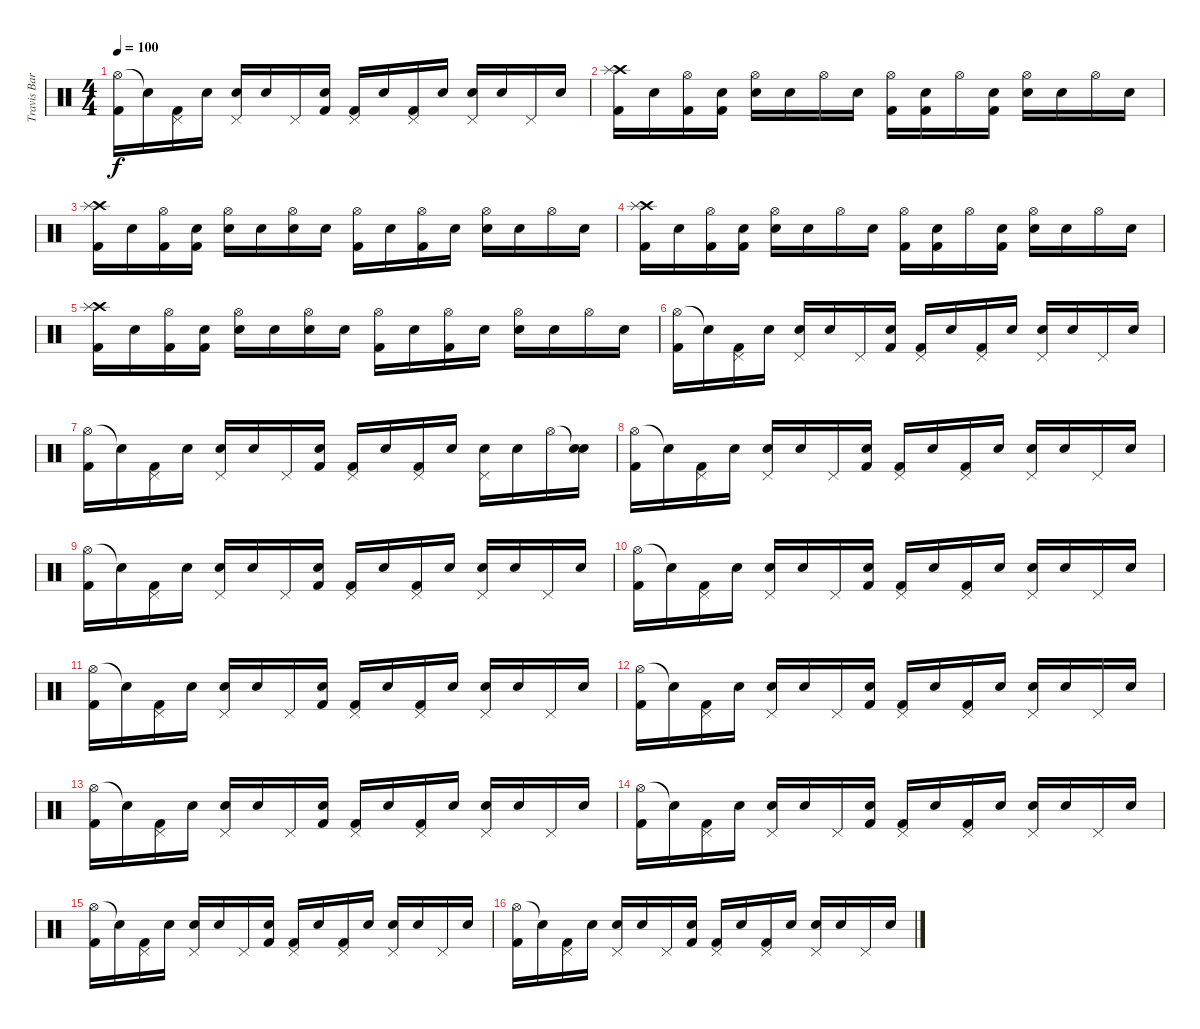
\track ("Travis Barker - Batterie" "Travis Bar") {instrument percussion}
\staff {score}
\articulation defaults
\ts (4 4)
\tempo 100
\clef neutral
\ks c
("Hi-Hat (open)" "Kick (hit) 2").16{dy f} "Snare (hit)"{t}.16 ("Pedal Hi-Hat (hit)" "Kick (hit) 2").16 "Snare (hit)"{x}.16 ("Pedal Hi-Hat (hit)" "Electric Snare (hit)").16 "Snare (hit)"{x}.16 "Pedal Hi-Hat (hit)".16 ("Snare (hit)"{x} "Kick (hit) 2").16 ("Pedal Hi-Hat (hit)" "Kick (hit) 2").16 "Snare (hit)"{x}.16 ("Pedal Hi-Hat (hit)" "Kick (hit) 2").16 "Snare (hit)"{x}.16 ("Pedal Hi-Hat (hit)" "Electric Snare (hit)").16 "Snare (hit)"{x}.16 "Pedal Hi-Hat (hit)".16 "Snare (hit)"{x}.16 |
("Crash high (hit)" "Splash (hit)" "Kick (hit) 2").16 "Snare (hit)"{x}.16 ("Hi-Hat (open)" "Kick (hit) 2").16 ("Snare (hit)"{x} "Kick (hit) 2").16 ("Hi-Hat (open)" "Electric Snare (hit)").16 "Snare (hit)"{x}.16 "Hi-Hat (open)".16 "Snare (hit)"{x}.16 ("Hi-Hat (open)" "Kick (hit) 2").16 ("Snare (hit)"{x} "Kick (hit) 2").16 "Hi-Hat (open)".16 ("Snare (hit)"{x} "Kick (hit) 2").16 ("Hi-Hat (open)" "Electric Snare (hit)").16 "Snare (hit)"{x}.16 "Hi-Hat (open)".16 "Snare (hit)"{x}.16 |
("Crash high (hit)" "Splash (hit)" "Kick (hit) 2").16 "Snare (hit)"{x}.16 ("Hi-Hat (open)" "Kick (hit) 2").16 ("Snare (hit)"{x} "Kick (hit) 2").16 ("Hi-Hat (open)" "Electric Snare (hit)").16 "Snare (hit)"{x}.16 ("Hi-Hat (open)" "Electric Snare (hit)").16 "Snare (hit)"{x}.16 ("Hi-Hat (open)" "Kick (hit) 2").16 "Snare (hit)"{x}.16 ("Hi-Hat (open)" "Kick (hit) 2").16 "Snare (hit)"{x}.16 ("Hi-Hat (open)" "Electric Snare (hit)").16 "Snare (hit)"{x}.16 "Hi-Hat (open)".16 "Snare (hit)"{x}.16 |
("Crash high (hit)" "Splash (hit)" "Kick (hit) 2").16 "Snare (hit)"{x}.16 ("Hi-Hat (open)" "Kick (hit) 2").16 ("Snare (hit)"{x} "Kick (hit) 2").16 ("Hi-Hat (open)" "Electric Snare (hit)").16 "Snare (hit)"{x}.16 "Hi-Hat (open)".16 "Snare (hit)"{x}.16 ("Hi-Hat (open)" "Kick (hit) 2").16 ("Snare (hit)"{x} "Kick (hit) 2").16 "Hi-Hat (open)".16 ("Snare (hit)"{x} "Kick (hit) 2").16 ("Hi-Hat (open)" "Electric Snare (hit)").16 "Snare (hit)"{x}.16 "Hi-Hat (open)".16 "Snare (hit)"{x}.16 |
("Crash high (hit)" "Splash (hit)" "Kick (hit) 2").16 "Snare (hit)"{x}.16 ("Hi-Hat (open)" "Kick (hit) 2").16 ("Snare (hit)"{x} "Kick (hit) 2").16 ("Hi-Hat (open)" "Electric Snare (hit)").16 "Snare (hit)"{x}.16 ("Hi-Hat (open)" "Electric Snare (hit)").16 "Snare (hit)"{x}.16 ("Hi-Hat (open)" "Kick (hit) 2").16 "Snare (hit)"{x}.16 ("Hi-Hat (open)" "Kick (hit) 2").16 "Snare (hit)"{x}.16 ("Hi-Hat (open)" "Electric Snare (hit)").16 "Snare (hit)"{x}.16 "Hi-Hat (open)".16 "Snare (hit)"{x}.16 |
("Hi-Hat (open)" "Kick (hit) 2").16 "Snare (hit)"{t}.16 ("Pedal Hi-Hat (hit)" "Kick (hit) 2").16 "Snare (hit)"{x}.16 ("Pedal Hi-Hat (hit)" "Electric Snare (hit)").16 "Snare (hit)"{x}.16 "Pedal Hi-Hat (hit)".16 ("Snare (hit)"{x} "Kick (hit) 2").16 ("Pedal Hi-Hat (hit)" "Kick (hit) 2").16 "Snare (hit)"{x}.16 ("Pedal Hi-Hat (hit)" "Kick (hit) 2").16 "Snare (hit)"{x}.16 ("Pedal Hi-Hat (hit)" "Electric Snare (hit)").16 "Snare (hit)"{x}.16 "Pedal Hi-Hat (hit)".16 "Snare (hit)"{x}.16 |
("Hi-Hat (open)" "Kick (hit) 2").16 "Snare (hit)"{t}.16 ("Pedal Hi-Hat (hit)" "Kick (hit) 2").16 "Snare (hit)"{x}.16 ("Pedal Hi-Hat (hit)" "Electric Snare (hit)").16 "Snare (hit)"{x}.16 "Pedal Hi-Hat (hit)".16 ("Snare (hit)"{x} "Kick (hit) 2").16 ("Pedal Hi-Hat (hit)" "Kick (hit) 2").16 "Snare (hit)"{x}.16 ("Pedal Hi-Hat (hit)" "Kick (hit) 2").16 "Snare (hit)"{x}.16 ("Pedal Hi-Hat (hit)" "Electric Snare (hit)").16 "Snare (hit)"{x}.16 "Hi-Hat (open)".16 ("Snare (hit)"{t} "Electric Snare (hit)").16 |
("Hi-Hat (open)" "Kick (hit) 2").16 "Snare (hit)"{t}.16 ("Pedal Hi-Hat (hit)" "Kick (hit) 2").16 "Snare (hit)"{x}.16 ("Pedal Hi-Hat (hit)" "Electric Snare (hit)").16 "Snare (hit)"{x}.16 "Pedal Hi-Hat (hit)".16 ("Snare (hit)"{x} "Kick (hit) 2").16 ("Pedal Hi-Hat (hit)" "Kick (hit) 2").16 "Snare (hit)"{x}.16 ("Pedal Hi-Hat (hit)" "Kick (hit) 2").16 "Snare (hit)"{x}.16 ("Pedal Hi-Hat (hit)" "Electric Snare (hit)").16 "Snare (hit)"{x}.16 "Pedal Hi-Hat (hit)".16 "Snare (hit)"{x}.16 |
("Hi-Hat (open)" "Kick (hit) 2").16 "Snare (hit)"{t}.16 ("Pedal Hi-Hat (hit)" "Kick (hit) 2").16 "Snare (hit)"{x}.16 ("Pedal Hi-Hat (hit)" "Electric Snare (hit)").16 "Snare (hit)"{x}.16 "Pedal Hi-Hat (hit)".16 ("Snare (hit)"{x} "Kick (hit) 2").16 ("Pedal Hi-Hat (hit)" "Kick (hit) 2").16 "Snare (hit)"{x}.16 ("Pedal Hi-Hat (hit)" "Kick (hit) 2").16 "Snare (hit)"{x}.16 ("Pedal Hi-Hat (hit)" "Electric Snare (hit)").16 "Snare (hit)"{x}.16 "Pedal Hi-Hat (hit)".16 "Snare (hit)"{x}.16 |
("Hi-Hat (open)" "Kick (hit) 2").16 "Snare (hit)"{t}.16 ("Pedal Hi-Hat (hit)" "Kick (hit) 2").16 "Snare (hit)"{x}.16 ("Pedal Hi-Hat (hit)" "Electric Snare (hit)").16 "Snare (hit)"{x}.16 "Pedal Hi-Hat (hit)".16 ("Snare (hit)"{x} "Kick (hit) 2").16 ("Pedal Hi-Hat (hit)" "Kick (hit) 2").16 "Snare (hit)"{x}.16 ("Pedal Hi-Hat (hit)" "Kick (hit) 2").16 "Snare (hit)"{x}.16 ("Pedal Hi-Hat (hit)" "Electric Snare (hit)").16 "Snare (hit)"{x}.16 "Pedal Hi-Hat (hit)".16 "Snare (hit)"{x}.16 |
("Hi-Hat (open)" "Kick (hit) 2").16 "Snare (hit)"{t}.16 ("Pedal Hi-Hat (hit)" "Kick (hit) 2").16 "Snare (hit)"{x}.16 ("Pedal Hi-Hat (hit)" "Electric Snare (hit)").16 "Snare (hit)"{x}.16 "Pedal Hi-Hat (hit)".16 ("Snare (hit)"{x} "Kick (hit) 2").16 ("Pedal Hi-Hat (hit)" "Kick (hit) 2").16 "Snare (hit)"{x}.16 ("Pedal Hi-Hat (hit)" "Kick (hit) 2").16 "Snare (hit)"{x}.16 ("Pedal Hi-Hat (hit)" "Electric Snare (hit)").16 "Snare (hit)"{x}.16 "Pedal Hi-Hat (hit)".16 "Snare (hit)"{x}.16 |
("Hi-Hat (open)" "Kick (hit) 2").16 "Snare (hit)"{t}.16 ("Pedal Hi-Hat (hit)" "Kick (hit) 2").16 "Snare (hit)"{x}.16 ("Pedal Hi-Hat (hit)" "Electric Snare (hit)").16 "Snare (hit)"{x}.16 "Pedal Hi-Hat (hit)".16 ("Snare (hit)"{x} "Kick (hit) 2").16 ("Pedal Hi-Hat (hit)" "Kick (hit) 2").16 "Snare (hit)"{x}.16 ("Pedal Hi-Hat (hit)" "Kick (hit) 2").16 "Snare (hit)"{x}.16 ("Pedal Hi-Hat (hit)" "Electric Snare (hit)").16 "Snare (hit)"{x}.16 "Pedal Hi-Hat (hit)".16 "Snare (hit)"{x}.16 |
("Hi-Hat (open)" "Kick (hit) 2").16 "Snare (hit)"{t}.16 ("Pedal Hi-Hat (hit)" "Kick (hit) 2").16 "Snare (hit)"{x}.16 ("Pedal Hi-Hat (hit)" "Electric Snare (hit)").16 "Snare (hit)"{x}.16 "Pedal Hi-Hat (hit)".16 ("Snare (hit)"{x} "Kick (hit) 2").16 ("Pedal Hi-Hat (hit)" "Kick (hit) 2").16 "Snare (hit)"{x}.16 ("Pedal Hi-Hat (hit)" "Kick (hit) 2").16 "Snare (hit)"{x}.16 ("Pedal Hi-Hat (hit)" "Electric Snare (hit)").16 "Snare (hit)"{x}.16 "Pedal Hi-Hat (hit)".16 "Snare (hit)"{x}.16 |
("Hi-Hat (open)" "Kick (hit) 2").16 "Snare (hit)"{t}.16 ("Pedal Hi-Hat (hit)" "Kick (hit) 2").16 "Snare (hit)"{x}.16 ("Pedal Hi-Hat (hit)" "Electric Snare (hit)").16 "Snare (hit)"{x}.16 "Pedal Hi-Hat (hit)".16 ("Snare (hit)"{x} "Kick (hit) 2").16 ("Pedal Hi-Hat (hit)" "Kick (hit) 2").16 "Snare (hit)"{x}.16 ("Pedal Hi-Hat (hit)" "Kick (hit) 2").16 "Snare (hit)"{x}.16 ("Pedal Hi-Hat (hit)" "Electric Snare (hit)").16 "Snare (hit)"{x}.16 "Pedal Hi-Hat (hit)".16 "Snare (hit)"{x}.16 |
("Hi-Hat (open)" "Kick (hit) 2").16 "Snare (hit)"{t}.16 ("Pedal Hi-Hat (hit)" "Kick (hit) 2").16 "Snare (hit)"{x}.16 ("Pedal Hi-Hat (hit)" "Electric Snare (hit)").16 "Snare (hit)"{x}.16 "Pedal Hi-Hat (hit)".16 ("Snare (hit)"{x} "Kick (hit) 2").16 ("Pedal Hi-Hat (hit)" "Kick (hit) 2").16 "Snare (hit)"{x}.16 ("Pedal Hi-Hat (hit)" "Kick (hit) 2").16 "Snare (hit)"{x}.16 ("Pedal Hi-Hat (hit)" "Electric Snare (hit)").16 "Snare (hit)"{x}.16 "Pedal Hi-Hat (hit)".16 "Snare (hit)"{x}.16 |
("Hi-Hat (open)" "Kick (hit) 2").16 "Snare (hit)"{t}.16 ("Pedal Hi-Hat (hit)" "Kick (hit) 2").16 "Snare (hit)"{x}.16 ("Pedal Hi-Hat (hit)" "Electric Snare (hit)").16 "Snare (hit)"{x}.16 "Pedal Hi-Hat (hit)".16 ("Snare (hit)"{x} "Kick (hit) 2").16 ("Pedal Hi-Hat (hit)" "Kick (hit) 2").16 "Snare (hit)"{x}.16 ("Pedal Hi-Hat (hit)" "Kick (hit) 2").16 "Snare (hit)"{x}.16 ("Pedal Hi-Hat (hit)" "Electric Snare (hit)").16 "Snare (hit)"{x}.16 "Pedal Hi-Hat (hit)".16 "Snare (hit)"{x}.16
